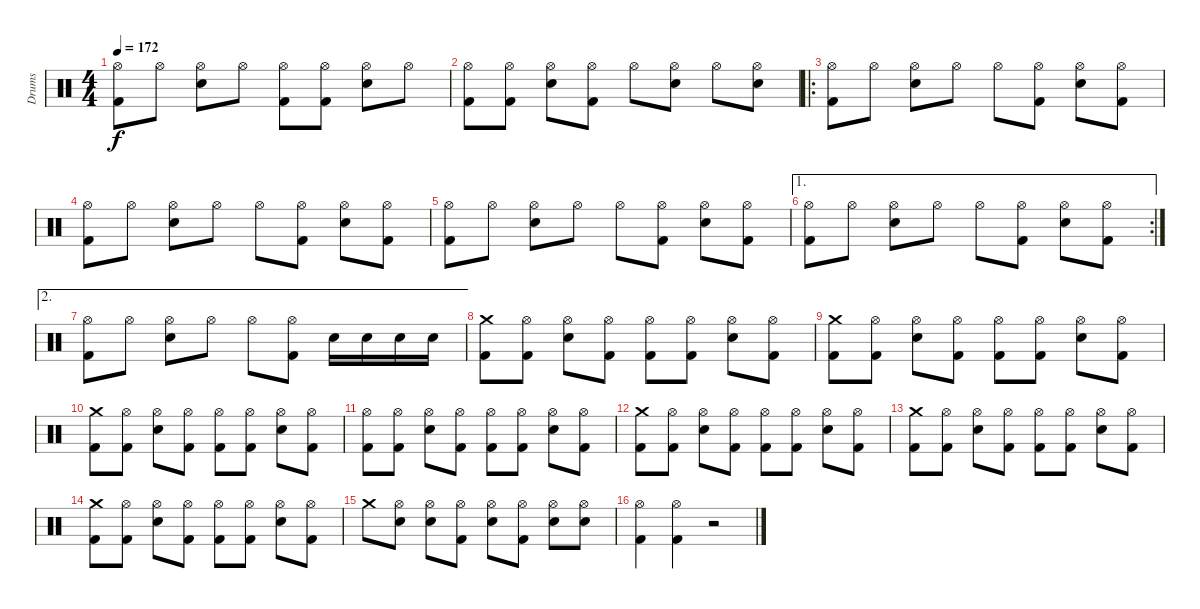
\track ("Drums" "Drums") {instrument percussion}
\staff {score}
\articulation defaults
\ts (4 4)
\tempo 172
\clef neutral
\ks c
("Hi-Hat (open)" "Kick (hit) 2").8{dy f} "Hi-Hat (open)".8 ("Hi-Hat (open)" "Electric Snare (hit)").8 "Hi-Hat (open)".8 ("Hi-Hat (open)" "Kick (hit) 2").8 ("Hi-Hat (open)" "Kick (hit) 2").8 ("Hi-Hat (open)" "Electric Snare (hit)").8 "Hi-Hat (open)".8 |
("Hi-Hat (open)" "Kick (hit) 2").8 ("Hi-Hat (open)" "Kick (hit) 2").8 ("Hi-Hat (open)" "Electric Snare (hit)").8 ("Hi-Hat (open)" "Kick (hit) 2").8 "Hi-Hat (open)".8 ("Hi-Hat (open)" "Electric Snare (hit)").8 "Hi-Hat (open)".8 ("Hi-Hat (open)" "Electric Snare (hit)").8 |
\ro
("Hi-Hat (open)" "Kick (hit) 2").8 "Hi-Hat (open)".8 ("Hi-Hat (open)" "Electric Snare (hit)").8 "Hi-Hat (open)".8 "Hi-Hat (open)".8 ("Hi-Hat (open)" "Kick (hit) 2").8 ("Hi-Hat (open)" "Electric Snare (hit)").8 ("Hi-Hat (open)" "Kick (hit) 2").8 |
("Hi-Hat (open)" "Kick (hit) 2").8 "Hi-Hat (open)".8 ("Hi-Hat (open)" "Electric Snare (hit)").8 "Hi-Hat (open)".8 "Hi-Hat (open)".8 ("Hi-Hat (open)" "Kick (hit) 2").8 ("Hi-Hat (open)" "Electric Snare (hit)").8 ("Hi-Hat (open)" "Kick (hit) 2").8 |
("Hi-Hat (open)" "Kick (hit) 2").8 "Hi-Hat (open)".8 ("Hi-Hat (open)" "Electric Snare (hit)").8 "Hi-Hat (open)".8 "Hi-Hat (open)".8 ("Hi-Hat (open)" "Kick (hit) 2").8 ("Hi-Hat (open)" "Electric Snare (hit)").8 ("Hi-Hat (open)" "Kick (hit) 2").8 |
\ae 1
\rc 2
("Hi-Hat (open)" "Kick (hit) 2").8 "Hi-Hat (open)".8 ("Hi-Hat (open)" "Electric Snare (hit)").8 "Hi-Hat (open)".8 "Hi-Hat (open)".8 ("Hi-Hat (open)" "Kick (hit) 2").8 ("Hi-Hat (open)" "Electric Snare (hit)").8 ("Hi-Hat (open)" "Kick (hit) 2").8 |
\ae 2
("Hi-Hat (open)" "Kick (hit) 2").8 "Hi-Hat (open)".8 ("Hi-Hat (open)" "Electric Snare (hit)").8 "Hi-Hat (open)".8 "Hi-Hat (open)".8 ("Hi-Hat (open)" "Kick (hit) 2").8 "Electric Snare (hit)".16 "Electric Snare (hit)".16 "Electric Snare (hit)".16 "Electric Snare (hit)".16 |
("Crash medium (hit)" "Kick (hit) 2").8 ("Hi-Hat (open)" "Kick (hit) 2").8 ("Hi-Hat (open)" "Electric Snare (hit)").8 ("Hi-Hat (open)" "Kick (hit) 2").8 ("Hi-Hat (open)" "Kick (hit) 2").8 ("Hi-Hat (open)" "Kick (hit) 2").8 ("Hi-Hat (open)" "Electric Snare (hit)").8 ("Hi-Hat (open)" "Kick (hit) 2").8 |
("Crash medium (hit)" "Kick (hit) 2").8 ("Hi-Hat (open)" "Kick (hit) 2").8 ("Hi-Hat (open)" "Electric Snare (hit)").8 ("Hi-Hat (open)" "Kick (hit) 2").8 ("Hi-Hat (open)" "Kick (hit) 2").8 ("Hi-Hat (open)" "Kick (hit) 2").8 ("Hi-Hat (open)" "Electric Snare (hit)").8 ("Hi-Hat (open)" "Kick (hit) 2").8 |
("Crash medium (hit)" "Kick (hit) 2").8 ("Hi-Hat (open)" "Kick (hit) 2").8 ("Hi-Hat (open)" "Electric Snare (hit)").8 ("Hi-Hat (open)" "Kick (hit) 2").8 ("Hi-Hat (open)" "Kick (hit) 2").8 ("Hi-Hat (open)" "Kick (hit) 2").8 ("Hi-Hat (open)" "Electric Snare (hit)").8 ("Hi-Hat (open)" "Kick (hit) 2").8 |
("Hi-Hat (open)" "Kick (hit) 2").8 ("Hi-Hat (open)" "Kick (hit) 2").8 ("Hi-Hat (open)" "Electric Snare (hit)").8 ("Hi-Hat (open)" "Kick (hit) 2").8 ("Hi-Hat (open)" "Kick (hit) 2").8 ("Hi-Hat (open)" "Kick (hit) 2").8 ("Hi-Hat (open)" "Electric Snare (hit)").8 ("Hi-Hat (open)" "Kick (hit) 2").8 |
("Crash medium (hit)" "Kick (hit) 2").8 ("Hi-Hat (open)" "Kick (hit) 2").8 ("Hi-Hat (open)" "Electric Snare (hit)").8 ("Hi-Hat (open)" "Kick (hit) 2").8 ("Hi-Hat (open)" "Kick (hit) 2").8 ("Hi-Hat (open)" "Kick (hit) 2").8 ("Hi-Hat (open)" "Electric Snare (hit)").8 ("Hi-Hat (open)" "Kick (hit) 2").8 |
("Crash medium (hit)" "Kick (hit) 2").8 ("Hi-Hat (open)" "Kick (hit) 2").8 ("Hi-Hat (open)" "Electric Snare (hit)").8 ("Hi-Hat (open)" "Kick (hit) 2").8 ("Hi-Hat (open)" "Kick (hit) 2").8 ("Hi-Hat (open)" "Kick (hit) 2").8 ("Hi-Hat (open)" "Electric Snare (hit)").8 ("Hi-Hat (open)" "Kick (hit) 2").8 |
("Crash medium (hit)" "Kick (hit) 2").8 ("Hi-Hat (open)" "Kick (hit) 2").8 ("Hi-Hat (open)" "Electric Snare (hit)").8 ("Hi-Hat (open)" "Kick (hit) 2").8 ("Hi-Hat (open)" "Kick (hit) 2").8 ("Hi-Hat (open)" "Kick (hit) 2").8 ("Hi-Hat (open)" "Electric Snare (hit)").8 ("Hi-Hat (open)" "Kick (hit) 2").8 |
"Crash medium (hit)".8 ("Hi-Hat (open)" "Electric Snare (hit)").8 ("Hi-Hat (open)" "Electric Snare (hit)").8 ("Hi-Hat (open)" "Kick (hit) 2").8 ("Hi-Hat (open)" "Electric Snare (hit)").8 ("Hi-Hat (open)" "Kick (hit) 2").8 ("Hi-Hat (open)" "Electric Snare (hit)").8 ("Hi-Hat (open)" "Electric Snare (hit)").8 |
("Hi-Hat (open)" "Kick (hit) 2").4 ("Hi-Hat (open)" "Kick (hit) 2").4 r.2
